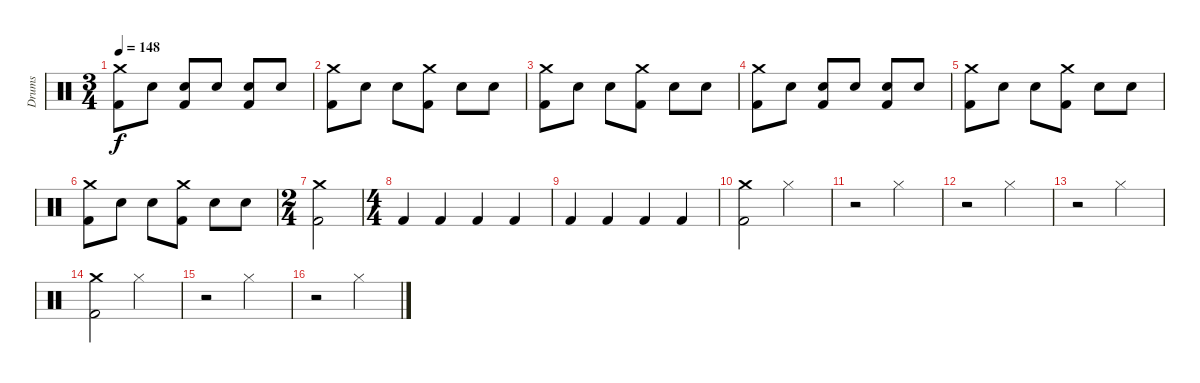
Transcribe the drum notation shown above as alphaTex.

\track ("Drums" "Drums") {instrument percussion}
\staff {score}
\articulation defaults
\ts (3 4)
\tempo 148
\clef neutral
\ks c
("Kick (hit) 2" "Crash medium (hit)").8{dy f} "Snare (hit) 2".8 ("Snare (hit) 2" "Kick (hit) 2").8 "Snare (hit) 2".8 ("Snare (hit) 2" "Kick (hit) 2").8 "Snare (hit) 2".8 |
("Kick (hit) 2" "Crash medium (hit)").8 "Snare (hit) 2".8 "Snare (hit) 2".8 ("Kick (hit) 2" "Crash medium (hit)").8 "Snare (hit) 2".8 "Snare (hit) 2".8 |
("Kick (hit) 2" "Crash medium (hit)").8 "Snare (hit) 2".8 "Snare (hit) 2".8 ("Kick (hit) 2" "Crash medium (hit)").8 "Snare (hit) 2".8 "Snare (hit) 2".8 |
("Kick (hit) 2" "Crash medium (hit)").8 "Snare (hit) 2".8 ("Snare (hit) 2" "Kick (hit) 2").8 "Snare (hit) 2".8 ("Snare (hit) 2" "Kick (hit) 2").8 "Snare (hit) 2".8 |
("Kick (hit) 2" "Crash medium (hit)").8 "Snare (hit) 2".8 "Snare (hit) 2".8 ("Kick (hit) 2" "Crash medium (hit)").8 "Snare (hit) 2".8 "Snare (hit) 2".8 |
("Kick (hit) 2" "Crash medium (hit)").8 "Snare (hit) 2".8 "Snare (hit) 2".8 ("Kick (hit) 2" "Crash medium (hit)").8 "Snare (hit) 2".8 "Snare (hit) 2".8 |
\ts (2 4)
("Kick (hit) 2" "Crash medium (hit)").2 |
\ts (4 4)
"Kick (hit) 2".4 "Kick (hit) 2".4 "Kick (hit) 2".4 "Kick (hit) 2".4 |
"Kick (hit) 2".4 "Kick (hit) 2".4 "Kick (hit) 2".4 "Kick (hit) 2".4 |
("Kick (hit) 2" "Crash medium (hit)").2 "Hi-Hat (closed)".2 |
r.2 "Hi-Hat (closed)".2 |
r.2 "Hi-Hat (closed)".2 |
r.2 "Hi-Hat (closed)".2 |
("Kick (hit) 2" "Crash medium (hit)").2 "Hi-Hat (closed)".2 |
r.2 "Hi-Hat (closed)".2 |
r.2 "Hi-Hat (closed)".2
